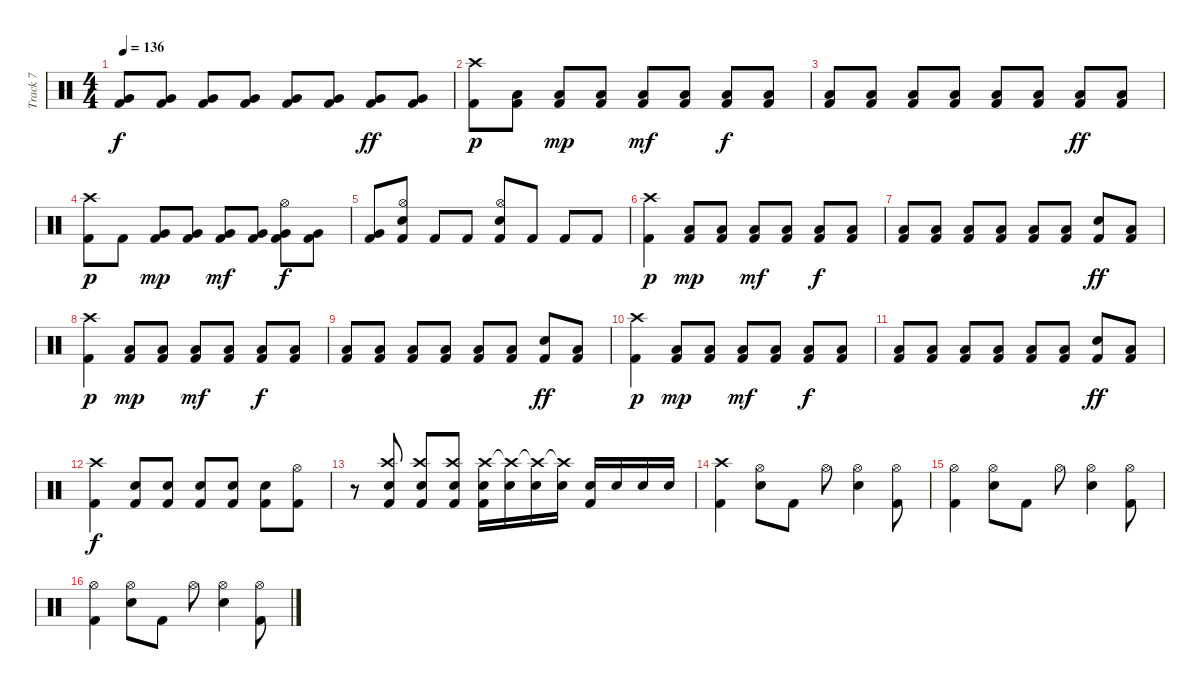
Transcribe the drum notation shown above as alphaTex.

\track ("Track 7" "Track 7") {instrument percussion}
\staff {score}
\articulation defaults
\ts (4 4)
\tempo 136
\clef neutral
\ks c
("Very Low Tom (hit)" "Kick (hit) 2").8{dy f} ("Very Low Tom (hit)" "Kick (hit) 2").8 ("Very Low Tom (hit)" "Kick (hit) 2").8 ("Very Low Tom (hit)" "Kick (hit) 2").8 ("Very Low Tom (hit)" "Kick (hit) 2").8 ("Very Low Tom (hit)" "Kick (hit) 2").8 ("Very Low Tom (hit)" "Kick (hit) 2").8{dy ff} ("Very Low Tom (hit)" "Kick (hit) 2").8 |
("Crash high (hit)" "Kick (hit) 2").8{dy p} ("Low Tom (hit)" "Kick (hit) 2").8 ("Low Tom (hit)" "Kick (hit) 2").8{dy mp} ("Low Tom (hit)" "Kick (hit) 2").8 ("Low Tom (hit)" "Kick (hit) 2").8{dy mf} ("Low Tom (hit)" "Kick (hit) 2").8 ("Low Tom (hit)" "Kick (hit) 2").8{dy f} ("Low Tom (hit)" "Kick (hit) 2").8 |
("Low Tom (hit)" "Kick (hit) 2").8 ("Low Tom (hit)" "Kick (hit) 2").8 ("Low Tom (hit)" "Kick (hit) 2").8 ("Low Tom (hit)" "Kick (hit) 2").8 ("Low Tom (hit)" "Kick (hit) 2").8 ("Low Tom (hit)" "Kick (hit) 2").8 ("Low Tom (hit)" "Kick (hit) 2").8{dy ff} ("Low Tom (hit)" "Kick (hit) 2").8 |
("Crash high (hit)" "Kick (hit) 2").8{dy p} "Kick (hit) 2".8 ("Very Low Tom (hit)" "Kick (hit) 2").8{dy mp} ("Very Low Tom (hit)" "Kick (hit) 2").8 ("Very Low Tom (hit)" "Kick (hit) 2").8{dy mf} ("Very Low Tom (hit)" "Kick (hit) 2").8 ("Hi-Hat (open)" "Very Low Tom (hit)" "Kick (hit) 2").8{dy f} ("Very Low Tom (hit)" "Kick (hit) 2").8 |
("Very Low Tom (hit)" "Kick (hit) 2").8 ("Hi-Hat (open)" "Electric Snare (hit)" "Kick (hit) 2").8 "Kick (hit) 2".8 "Kick (hit) 2".8 ("Hi-Hat (open)" "Electric Snare (hit)" "Kick (hit) 2").8 "Kick (hit) 2".8 "Kick (hit) 2".8 "Kick (hit) 2".8 |
("Crash high (hit)" "Kick (hit) 2").4{dy p} ("Low Tom (hit)" "Kick (hit) 2").8{dy mp} ("Low Tom (hit)" "Kick (hit) 2").8 ("Low Tom (hit)" "Kick (hit) 2").8{dy mf} ("Low Tom (hit)" "Kick (hit) 2").8 ("Low Tom (hit)" "Kick (hit) 2").8{dy f} ("Low Tom (hit)" "Kick (hit) 2").8 |
("Low Tom (hit)" "Kick (hit) 2").8 ("Low Tom (hit)" "Kick (hit) 2").8 ("Low Tom (hit)" "Kick (hit) 2").8 ("Low Tom (hit)" "Kick (hit) 2").8 ("Low Tom (hit)" "Kick (hit) 2").8 ("Low Tom (hit)" "Kick (hit) 2").8 ("Electric Snare (hit)" "Kick (hit) 2").8{dy ff} ("Low Tom (hit)" "Kick (hit) 2").8 |
("Crash high (hit)" "Kick (hit) 2").4{dy p} ("Low Tom (hit)" "Kick (hit) 2").8{dy mp} ("Low Tom (hit)" "Kick (hit) 2").8 ("Low Tom (hit)" "Kick (hit) 2").8{dy mf} ("Low Tom (hit)" "Kick (hit) 2").8 ("Low Tom (hit)" "Kick (hit) 2").8{dy f} ("Low Tom (hit)" "Kick (hit) 2").8 |
("Low Tom (hit)" "Kick (hit) 2").8 ("Low Tom (hit)" "Kick (hit) 2").8 ("Low Tom (hit)" "Kick (hit) 2").8 ("Low Tom (hit)" "Kick (hit) 2").8 ("Low Tom (hit)" "Kick (hit) 2").8 ("Low Tom (hit)" "Kick (hit) 2").8 ("Electric Snare (hit)" "Kick (hit) 2").8{dy ff} ("Low Tom (hit)" "Kick (hit) 2").8 |
("Crash high (hit)" "Kick (hit) 2").4{dy p} ("Low Tom (hit)" "Kick (hit) 2").8{dy mp} ("Low Tom (hit)" "Kick (hit) 2").8 ("Low Tom (hit)" "Kick (hit) 2").8{dy mf} ("Low Tom (hit)" "Kick (hit) 2").8 ("Low Tom (hit)" "Kick (hit) 2").8{dy f} ("Low Tom (hit)" "Kick (hit) 2").8 |
("Low Tom (hit)" "Kick (hit) 2").8 ("Low Tom (hit)" "Kick (hit) 2").8 ("Low Tom (hit)" "Kick (hit) 2").8 ("Low Tom (hit)" "Kick (hit) 2").8 ("Low Tom (hit)" "Kick (hit) 2").8 ("Low Tom (hit)" "Kick (hit) 2").8 ("Electric Snare (hit)" "Kick (hit) 2").8{dy ff} ("Low Tom (hit)" "Kick (hit) 2").8 |
("Crash high (hit)" "Kick (hit) 2").4{dy f} ("Electric Snare (hit)" "Kick (hit) 2").8 ("Electric Snare (hit)" "Kick (hit) 2").8 ("Electric Snare (hit)" "Kick (hit) 2").8 ("Electric Snare (hit)" "Kick (hit) 2").8 ("Electric Snare (hit)" "Kick (hit) 2").8 ("Hi-Hat (open)" "Kick (hit) 2").8 |
r.8 ("Crash high (hit)" "Electric Snare (hit)" "Kick (hit) 2").8 ("Crash high (hit)" "Electric Snare (hit)" "Kick (hit) 2").8 ("Crash high (hit)" "Electric Snare (hit)" "Kick (hit) 2").8 ("Crash high (hit)" "Electric Snare (hit)" "Kick (hit) 2").16 ("Crash high (hit)"{t} "Electric Snare (hit)").16 ("Crash high (hit)"{t} "Electric Snare (hit)").16 ("Crash high (hit)"{t} "Electric Snare (hit)").16 ("Electric Snare (hit)" "Kick (hit) 2").16 "Electric Snare (hit)".16 "Electric Snare (hit)".16 "Electric Snare (hit)".16 |
("Crash high (hit)" "Kick (hit) 2").4 ("Hi-Hat (open)" "Electric Snare (hit)").8 "Kick (hit) 2".8 "Hi-Hat (open)".8 ("Hi-Hat (open)" "Electric Snare (hit)").4 ("Hi-Hat (open)" "Kick (hit) 2").8 |
("Hi-Hat (open)" "Kick (hit) 2").4 ("Hi-Hat (open)" "Electric Snare (hit)").8 "Kick (hit) 2".8 "Hi-Hat (open)".8 ("Hi-Hat (open)" "Electric Snare (hit)").4 ("Hi-Hat (open)" "Kick (hit) 2").8 |
("Hi-Hat (open)" "Kick (hit) 2").4 ("Hi-Hat (open)" "Electric Snare (hit)").8 "Kick (hit) 2".8 "Hi-Hat (open)".8 ("Hi-Hat (open)" "Electric Snare (hit)").4 ("Hi-Hat (open)" "Kick (hit) 2").8
